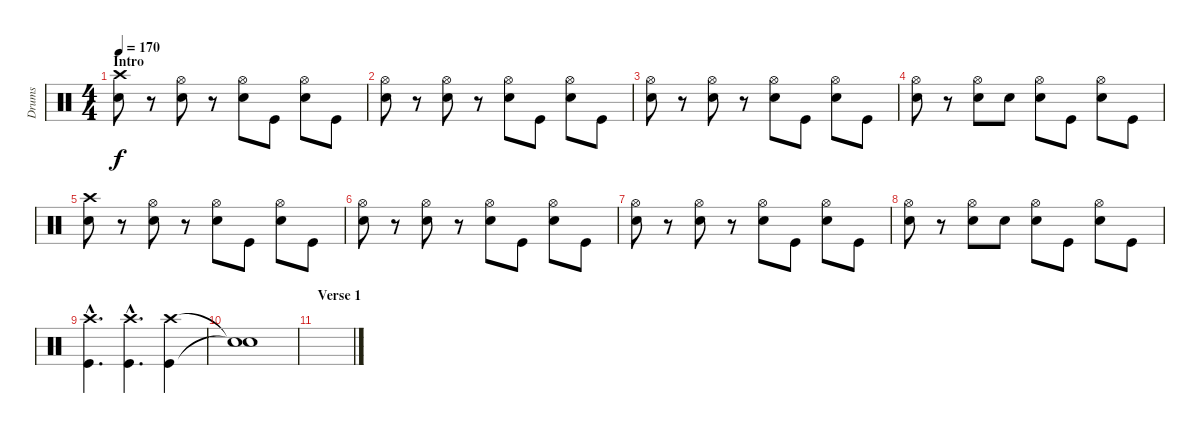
\track ("Drums" "Drums") {instrument percussion}
\staff {score}
\articulation defaults
\ts (4 4)
\section ("" "Intro")
\tempo 170
\clef neutral
\ks c
("Crash high (hit)" "Snare (hit) 2").8{dy f} r.8 ("Hi-Hat (open)" "Snare (hit) 2").8 r.8 ("Hi-Hat (open)" "Snare (hit) 2").8 "Kick (hit)".8 ("Hi-Hat (open)" "Snare (hit) 2").8 "Kick (hit)".8 |
("Hi-Hat (open)" "Snare (hit) 2").8 r.8 ("Hi-Hat (open)" "Snare (hit) 2").8 r.8 ("Hi-Hat (open)" "Snare (hit) 2").8 "Kick (hit)".8 ("Hi-Hat (open)" "Snare (hit) 2").8 "Kick (hit)".8 |
("Hi-Hat (open)" "Snare (hit) 2").8 r.8 ("Hi-Hat (open)" "Snare (hit) 2").8 r.8 ("Hi-Hat (open)" "Snare (hit) 2").8 "Kick (hit)".8 ("Hi-Hat (open)" "Snare (hit) 2").8 "Kick (hit)".8 |
("Hi-Hat (open)" "Snare (hit) 2").8 r.8 ("Hi-Hat (open)" "Snare (hit) 2").8 "Snare (hit) 2".8 ("Hi-Hat (open)" "Snare (hit) 2").8 "Kick (hit)".8 ("Hi-Hat (open)" "Snare (hit) 2").8 "Kick (hit)".8 |
("Crash high (hit)" "Snare (hit) 2").8 r.8 ("Hi-Hat (open)" "Snare (hit) 2").8 r.8 ("Hi-Hat (open)" "Snare (hit) 2").8 "Kick (hit)".8 ("Hi-Hat (open)" "Snare (hit) 2").8 "Kick (hit)".8 |
("Hi-Hat (open)" "Snare (hit) 2").8 r.8 ("Hi-Hat (open)" "Snare (hit) 2").8 r.8 ("Hi-Hat (open)" "Snare (hit) 2").8 "Kick (hit)".8 ("Hi-Hat (open)" "Snare (hit) 2").8 "Kick (hit)".8 |
("Hi-Hat (open)" "Snare (hit) 2").8 r.8 ("Hi-Hat (open)" "Snare (hit) 2").8 r.8 ("Hi-Hat (open)" "Snare (hit) 2").8 "Kick (hit)".8 ("Hi-Hat (open)" "Snare (hit) 2").8 "Kick (hit)".8 |
("Hi-Hat (open)" "Snare (hit) 2").8 r.8 ("Hi-Hat (open)" "Snare (hit) 2").8 "Snare (hit) 2".8 ("Hi-Hat (open)" "Snare (hit) 2").8 "Kick (hit)".8 ("Hi-Hat (open)" "Snare (hit) 2").8 "Kick (hit)".8 |
("Crash high (hit)"{hac} "Kick (hit)"{hac}).4{d} ("Crash high (hit)"{hac} "Kick (hit)"{hac}).4{d} ("Crash high (hit)" "Kick (hit)").4 |
("Snare (hit)"{t} "Snare (hit)"{t}).1 |
\section ("" "Verse 1")
